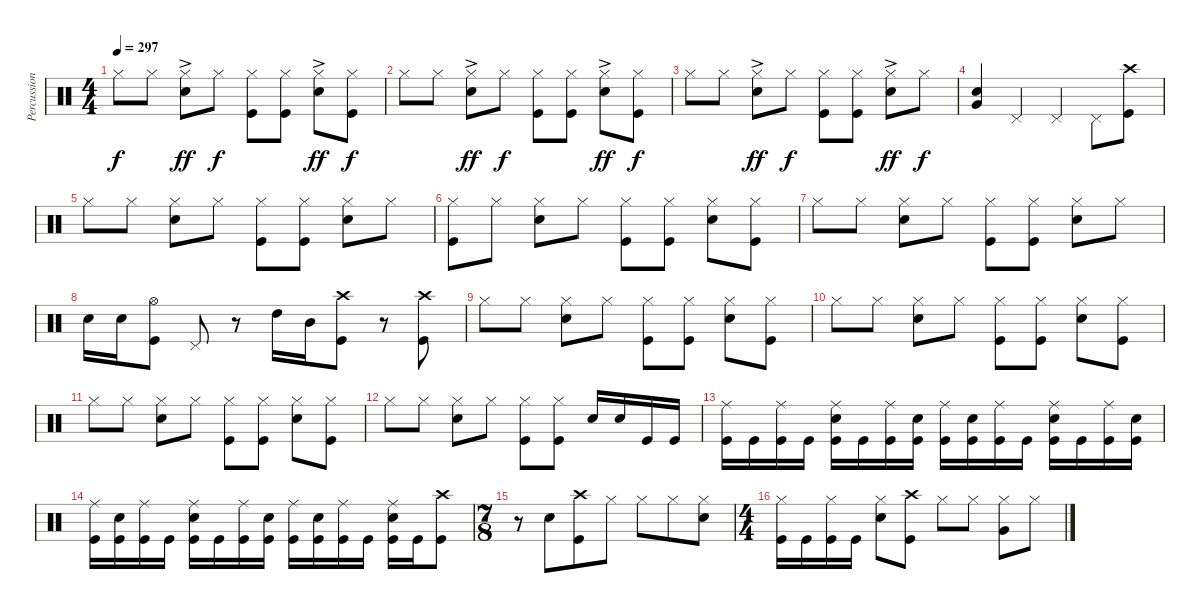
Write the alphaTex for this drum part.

\track ("Percussioni" "Percussion") {instrument percussion}
\staff {score}
\articulation defaults
\ts (4 4)
\tempo 297
\clef neutral
\ks c "Hi-Hat (closed)".8{dy f} "Hi-Hat (closed)".8
("Hi-Hat (closed)"{ac} "Snare (hit) 2").8{dy ff} "Hi-Hat (closed)".8{dy f} ("Hi-Hat (closed)" "Kick (hit)").8 ("Hi-Hat (closed)" "Kick (hit)").8 ("Hi-Hat (closed)"{ac} "Snare (hit) 2").8{dy ff} ("Hi-Hat (closed)" "Kick (hit)").8{dy f} |
"Hi-Hat (closed)".8 "Hi-Hat (closed)".8 ("Hi-Hat (closed)"{ac} "Snare (hit) 2").8{dy ff} "Hi-Hat (closed)".8{dy f} ("Hi-Hat (closed)" "Kick (hit)").8 ("Hi-Hat (closed)" "Kick (hit)").8 ("Hi-Hat (closed)"{ac} "Snare (hit) 2").8{dy ff} ("Hi-Hat (closed)" "Kick (hit)").8{dy f} |
"Hi-Hat (closed)".8 "Hi-Hat (closed)".8 ("Hi-Hat (closed)"{ac} "Snare (hit) 2").8{dy ff} "Hi-Hat (closed)".8{dy f} ("Hi-Hat (closed)" "Kick (hit)").8 ("Hi-Hat (closed)" "Kick (hit)").8 ("Hi-Hat (closed)"{ac} "Snare (hit) 2").8{dy ff} "Hi-Hat (closed)".8{dy f} |
("Snare (hit) 2" "Very Low Tom (hit)").4 "Pedal Hi-Hat (hit)".4 "Pedal Hi-Hat (hit)".4 "Pedal Hi-Hat (hit)".8 ("Kick (hit)" "Crash high (hit)").8 |
"Hi-Hat (closed)".8 "Hi-Hat (closed)".8 ("Hi-Hat (closed)" "Snare (hit) 2").8 "Hi-Hat (closed)".8 ("Hi-Hat (closed)" "Kick (hit)").8 ("Hi-Hat (closed)" "Kick (hit)").8 ("Hi-Hat (closed)" "Snare (hit) 2").8 "Hi-Hat (closed)".8 |
("Hi-Hat (closed)" "Kick (hit)").8 "Hi-Hat (closed)".8 ("Hi-Hat (closed)" "Snare (hit) 2").8 "Hi-Hat (closed)".8 ("Hi-Hat (closed)" "Kick (hit)").8 ("Hi-Hat (closed)" "Kick (hit)").8 ("Hi-Hat (closed)" "Snare (hit) 2").8 ("Hi-Hat (closed)" "Kick (hit)").8 |
"Hi-Hat (closed)".8 "Hi-Hat (closed)".8 ("Hi-Hat (closed)" "Snare (hit) 2").8 "Hi-Hat (closed)".8 ("Hi-Hat (closed)" "Kick (hit)").8 ("Hi-Hat (closed)" "Kick (hit)").8 ("Hi-Hat (closed)" "Snare (hit) 2").8 "Hi-Hat (closed)".8 |
"Snare (hit) 2".16 "Snare (hit) 2".16 ("Kick (hit)" "Hi-Hat (open)").8 "Pedal Hi-Hat (hit)".8 r.8 "High Tom (hit)".16 "Mid Tom (hit)".16 ("Crash high (hit)" "Kick (hit)").8 r.8 ("Crash high (hit)" "Kick (hit)").8 |
"Hi-Hat (closed)".8 "Hi-Hat (closed)".8 ("Hi-Hat (closed)" "Snare (hit) 2").8 "Hi-Hat (closed)".8 ("Hi-Hat (closed)" "Kick (hit)").8 ("Hi-Hat (closed)" "Kick (hit)").8 ("Hi-Hat (closed)" "Snare (hit) 2").8 ("Hi-Hat (closed)" "Kick (hit)").8 |
"Hi-Hat (closed)".8 "Hi-Hat (closed)".8 ("Hi-Hat (closed)" "Snare (hit) 2").8 "Hi-Hat (closed)".8 ("Hi-Hat (closed)" "Kick (hit)").8 ("Hi-Hat (closed)" "Kick (hit)").8 ("Hi-Hat (closed)" "Snare (hit) 2").8 ("Hi-Hat (closed)" "Kick (hit)").8 |
"Hi-Hat (closed)".8 "Hi-Hat (closed)".8 ("Hi-Hat (closed)" "Snare (hit) 2").8 "Hi-Hat (closed)".8 ("Hi-Hat (closed)" "Kick (hit)").8 ("Hi-Hat (closed)" "Kick (hit)").8 ("Hi-Hat (closed)" "Snare (hit) 2").8 ("Hi-Hat (closed)" "Kick (hit)").8 |
"Hi-Hat (closed)".8 "Hi-Hat (closed)".8 ("Hi-Hat (closed)" "Snare (hit) 2").8 "Hi-Hat (closed)".8 ("Hi-Hat (closed)" "Kick (hit)").8 ("Hi-Hat (closed)" "Kick (hit)").8 "Snare (hit) 2".16 "Snare (hit) 2".16 "Kick (hit)".16 "Kick (hit)".16 |
("Kick (hit)" "Ride (middle)").16 "Kick (hit)".16 ("Kick (hit)" "Ride (middle)").16 "Kick (hit)".16 ("Kick (hit)" "Ride (middle)" "Snare (hit) 2").16 "Kick (hit)".16 ("Kick (hit)" "Ride (middle)").16 ("Kick (hit)" "Snare (hit) 2").16 ("Kick (hit)" "Ride (middle)").16 ("Kick (hit)" "Snare (hit) 2").16 ("Kick (hit)" "Ride (middle)").16 "Kick (hit)".16 ("Kick (hit)" "Ride (middle)" "Snare (hit) 2").16 "Kick (hit)".16 ("Kick (hit)" "Ride (middle)").16 ("Kick (hit)" "Snare (hit) 2").16 |
("Ride (middle)" "Kick (hit)").16 ("Kick (hit)" "Snare (hit) 2").16 ("Kick (hit)" "Ride (middle)").16 "Kick (hit)".16 ("Kick (hit)" "Ride (middle)" "Snare (hit) 2").16 "Kick (hit)".16 ("Kick (hit)" "Ride (middle)").16 ("Kick (hit)" "Snare (hit) 2").16 ("Kick (hit)" "Ride (middle)").16 ("Kick (hit)" "Snare (hit) 2").16 ("Kick (hit)" "Ride (middle)").16 "Kick (hit)".16 ("Kick (hit)" "Ride (middle)" "Snare (hit) 2").16 "Kick (hit)".16 ("Kick (hit)" "Crash high (hit)").8 |
\ts (7 8)
r.8 "Snare (hit) 2".8 ("Kick (hit)" "Crash high (hit)").8 "Hi-Hat (closed)".8 "Hi-Hat (closed)".8 "Hi-Hat (closed)".8 ("Hi-Hat (closed)" "Snare (hit) 2").8 |
\ts (4 4)
("Kick (hit)" "Hi-Hat (closed)").16 "Kick (hit)".16 ("Kick (hit)" "Hi-Hat (closed)").16 "Kick (hit)".16 ("Hi-Hat (closed)" "Snare (hit) 2").8 ("Crash high (hit)" "Kick (hit)").8 "Hi-Hat (closed)".8 "Hi-Hat (closed)".8 ("Hi-Hat (closed)" "Very Low Tom (hit)").8 "Hi-Hat (closed)".8
